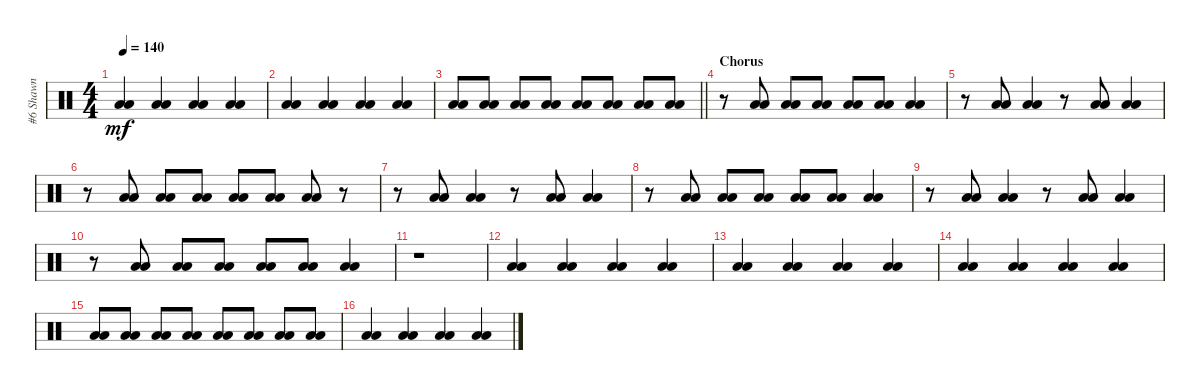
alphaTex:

\track ("#6 Shawn" "#6 Shawn") {solo instrument percussion}
\staff {score}
\articulation defaults
\ts (4 4)
\tempo 140
\clef neutral
\ks c
("Low Floor Tom (hit)" "Low Floor Tom (hit)").4{dy mf} ("Low Tom (hit)" "Low Tom (hit)").4 ("Low Floor Tom (hit)" "Low Floor Tom (hit)").4 ("Low Tom (hit)" "Low Tom (hit)").4 |
("Low Floor Tom (hit)" "Low Floor Tom (hit)").4 ("Low Tom (hit)" "Low Tom (hit)").4 ("Low Floor Tom (hit)" "Low Floor Tom (hit)").4 ("Low Tom (hit)" "Low Tom (hit)").4 |
\barLineRight lightlight
("Low Tom (hit)" "Low Floor Tom (hit)").8 ("Low Tom (hit)" "Low Floor Tom (hit)").8 ("Low Tom (hit)" "Low Floor Tom (hit)").8 ("Low Tom (hit)" "Low Floor Tom (hit)").8 ("Low Tom (hit)" "Low Floor Tom (hit)").8 ("Low Tom (hit)" "Low Floor Tom (hit)").8 ("Low Tom (hit)" "Low Floor Tom (hit)").8 ("Low Tom (hit)" "Low Floor Tom (hit)").8 |
\section ("" "Chorus")
r.8 ("Low Tom (hit)" "Low Floor Tom (hit)").8 ("Low Tom (hit)" "Low Floor Tom (hit)").8 ("Low Tom (hit)" "Low Floor Tom (hit)").8 ("Low Tom (hit)" "Low Floor Tom (hit)").8 ("Low Tom (hit)" "Low Floor Tom (hit)").8 ("Low Tom (hit)" "Low Floor Tom (hit)").4 |
r.8 ("Low Tom (hit)" "Low Floor Tom (hit)").8 ("Low Tom (hit)" "Low Floor Tom (hit)").4 r.8 ("Low Tom (hit)" "Low Floor Tom (hit)").8 ("Low Tom (hit)" "Low Floor Tom (hit)").4 |
r.8 ("Low Tom (hit)" "Low Floor Tom (hit)").8 ("Low Tom (hit)" "Low Floor Tom (hit)").8 ("Low Tom (hit)" "Low Floor Tom (hit)").8 ("Low Tom (hit)" "Low Floor Tom (hit)").8 ("Low Tom (hit)" "Low Floor Tom (hit)").8 ("Low Tom (hit)" "Low Floor Tom (hit)").8 r.8 |
r.8 ("Low Tom (hit)" "Low Floor Tom (hit)").8 ("Low Tom (hit)" "Low Floor Tom (hit)").4 r.8 ("Low Tom (hit)" "Low Floor Tom (hit)").8 ("Low Tom (hit)" "Low Floor Tom (hit)").4 |
r.8 ("Low Tom (hit)" "Low Floor Tom (hit)").8 ("Low Tom (hit)" "Low Floor Tom (hit)").8 ("Low Tom (hit)" "Low Floor Tom (hit)").8 ("Low Tom (hit)" "Low Floor Tom (hit)").8 ("Low Tom (hit)" "Low Floor Tom (hit)").8 ("Low Tom (hit)" "Low Floor Tom (hit)").4 |
r.8 ("Low Tom (hit)" "Low Floor Tom (hit)").8 ("Low Tom (hit)" "Low Floor Tom (hit)").4 r.8 ("Low Tom (hit)" "Low Floor Tom (hit)").8 ("Low Tom (hit)" "Low Floor Tom (hit)").4 |
r.8 ("Low Tom (hit)" "Low Floor Tom (hit)").8 ("Low Tom (hit)" "Low Floor Tom (hit)").8 ("Low Tom (hit)" "Low Floor Tom (hit)").8 ("Low Tom (hit)" "Low Floor Tom (hit)").8 ("Low Tom (hit)" "Low Floor Tom (hit)").8 ("Low Tom (hit)" "Low Floor Tom (hit)").4 |
r.1 |
("Low Floor Tom (hit)" "Low Floor Tom (hit)").4 ("Low Tom (hit)" "Low Tom (hit)").4 ("Low Floor Tom (hit)" "Low Floor Tom (hit)").4 ("Low Tom (hit)" "Low Tom (hit)").4 |
("Low Floor Tom (hit)" "Low Floor Tom (hit)").4 ("Low Tom (hit)" "Low Tom (hit)").4 ("Low Floor Tom (hit)" "Low Floor Tom (hit)").4 ("Low Tom (hit)" "Low Tom (hit)").4 |
("Low Floor Tom (hit)" "Low Floor Tom (hit)").4 ("Low Tom (hit)" "Low Tom (hit)").4 ("Low Floor Tom (hit)" "Low Floor Tom (hit)").4 ("Low Tom (hit)" "Low Tom (hit)").4 |
("Low Tom (hit)" "Low Floor Tom (hit)").8 ("Low Tom (hit)" "Low Floor Tom (hit)").8 ("Low Tom (hit)" "Low Floor Tom (hit)").8 ("Low Tom (hit)" "Low Floor Tom (hit)").8 ("Low Tom (hit)" "Low Floor Tom (hit)").8 ("Low Tom (hit)" "Low Floor Tom (hit)").8 ("Low Tom (hit)" "Low Floor Tom (hit)").8 ("Low Tom (hit)" "Low Floor Tom (hit)").8 |
("Low Floor Tom (hit)" "Low Floor Tom (hit)").4 ("Low Tom (hit)" "Low Tom (hit)").4 ("Low Floor Tom (hit)" "Low Floor Tom (hit)").4 ("Low Tom (hit)" "Low Tom (hit)").4
